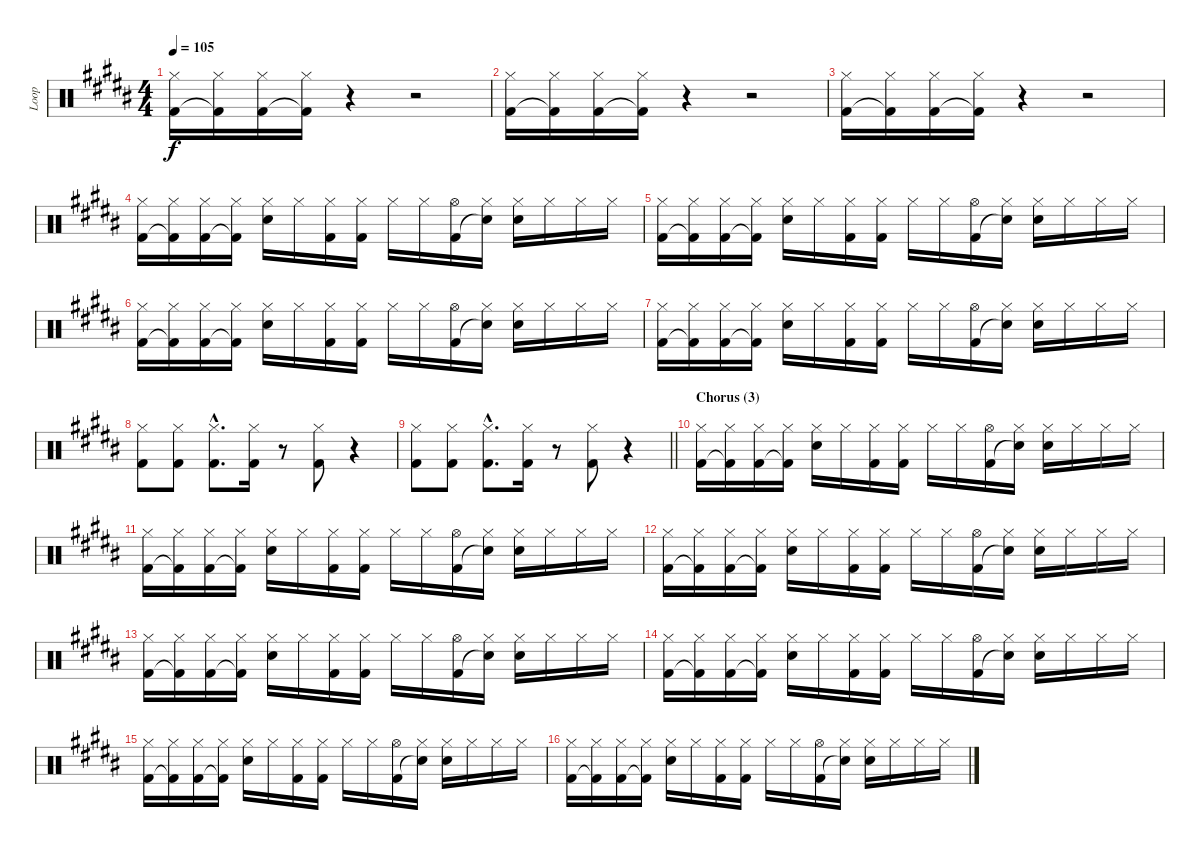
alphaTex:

\track ("Loop" "Loop") {instrument percussion}
\staff {score}
\articulation defaults
\ts (4 4)
\tempo 105
\clef neutral
\ks g#minor
("Hi-Hat (closed)" "Kick (hit) 2").16{dy f} ("Hi-Hat (closed)" "Kick (hit) 2"{t}).16 ("Hi-Hat (closed)" "Kick (hit) 2").16 ("Hi-Hat (closed)" "Kick (hit) 2"{t}).16 r.4 r.2 |
("Hi-Hat (closed)" "Kick (hit) 2").16 ("Hi-Hat (closed)" "Kick (hit) 2"{t}).16 ("Hi-Hat (closed)" "Kick (hit) 2").16 ("Hi-Hat (closed)" "Kick (hit) 2"{t}).16 r.4 r.2 |
("Hi-Hat (closed)" "Kick (hit) 2").16 ("Hi-Hat (closed)" "Kick (hit) 2"{t}).16 ("Hi-Hat (closed)" "Kick (hit) 2").16 ("Hi-Hat (closed)" "Kick (hit) 2"{t}).16 r.4 r.2 |
("Hi-Hat (closed)" "Kick (hit) 2").16 ("Hi-Hat (closed)" "Kick (hit) 2"{t}).16 ("Hi-Hat (closed)" "Kick (hit) 2").16 ("Hi-Hat (closed)" "Kick (hit) 2"{t}).16 ("Hi-Hat (closed)" "Electric Snare (hit)").16 "Hi-Hat (closed)".16 ("Hi-Hat (closed)" "Kick (hit) 2").16 ("Hi-Hat (closed)" "Kick (hit) 2").16 "Hi-Hat (closed)".16 "Hi-Hat (closed)".16 ("Hi-Hat (open)" "Kick (hit) 2").16 ("Hi-Hat (closed)" "Snare (hit)"{t}).16 ("Hi-Hat (closed)" "Electric Snare (hit)").16 "Hi-Hat (closed)".16 "Hi-Hat (closed)".16 "Hi-Hat (closed)".16 |
("Hi-Hat (closed)" "Kick (hit) 2").16 ("Hi-Hat (closed)" "Kick (hit) 2"{t}).16 ("Hi-Hat (closed)" "Kick (hit) 2").16 ("Hi-Hat (closed)" "Kick (hit) 2"{t}).16 ("Hi-Hat (closed)" "Electric Snare (hit)").16 "Hi-Hat (closed)".16 ("Hi-Hat (closed)" "Kick (hit) 2").16 ("Hi-Hat (closed)" "Kick (hit) 2").16 "Hi-Hat (closed)".16 "Hi-Hat (closed)".16 ("Hi-Hat (open)" "Kick (hit) 2").16 ("Hi-Hat (closed)" "Snare (hit)"{t}).16 ("Hi-Hat (closed)" "Electric Snare (hit)").16 "Hi-Hat (closed)".16 "Hi-Hat (closed)".16 "Hi-Hat (closed)".16 |
("Hi-Hat (closed)" "Kick (hit) 2").16 ("Hi-Hat (closed)" "Kick (hit) 2"{t}).16 ("Hi-Hat (closed)" "Kick (hit) 2").16 ("Hi-Hat (closed)" "Kick (hit) 2"{t}).16 ("Hi-Hat (closed)" "Electric Snare (hit)").16 "Hi-Hat (closed)".16 ("Hi-Hat (closed)" "Kick (hit) 2").16 ("Hi-Hat (closed)" "Kick (hit) 2").16 "Hi-Hat (closed)".16 "Hi-Hat (closed)".16 ("Hi-Hat (open)" "Kick (hit) 2").16 ("Hi-Hat (closed)" "Snare (hit)"{t}).16 ("Hi-Hat (closed)" "Electric Snare (hit)").16 "Hi-Hat (closed)".16 "Hi-Hat (closed)".16 "Hi-Hat (closed)".16 |
("Hi-Hat (closed)" "Kick (hit) 2").16 ("Hi-Hat (closed)" "Kick (hit) 2"{t}).16 ("Hi-Hat (closed)" "Kick (hit) 2").16 ("Hi-Hat (closed)" "Kick (hit) 2"{t}).16 ("Hi-Hat (closed)" "Electric Snare (hit)").16 "Hi-Hat (closed)".16 ("Hi-Hat (closed)" "Kick (hit) 2").16 ("Hi-Hat (closed)" "Kick (hit) 2").16 "Hi-Hat (closed)".16 "Hi-Hat (closed)".16 ("Hi-Hat (open)" "Kick (hit) 2").16 ("Hi-Hat (closed)" "Snare (hit)"{t}).16 ("Hi-Hat (closed)" "Electric Snare (hit)").16 "Hi-Hat (closed)".16 "Hi-Hat (closed)".16 "Hi-Hat (closed)".16 |
("Hi-Hat (closed)" "Kick (hit) 2").8 ("Hi-Hat (closed)" "Kick (hit) 2").8 ("Hi-Hat (closed)"{hac} "Kick (hit) 2"{hac}).8{d} ("Hi-Hat (closed)" "Kick (hit) 2").16 r.8 ("Hi-Hat (closed)" "Kick (hit) 2").8 r.4 |
\barLineRight lightlight
("Hi-Hat (closed)" "Kick (hit) 2").8 ("Hi-Hat (closed)" "Kick (hit) 2").8 ("Hi-Hat (closed)"{hac} "Kick (hit) 2"{hac}).8{d} ("Hi-Hat (closed)" "Kick (hit) 2").16 r.8 ("Hi-Hat (closed)" "Kick (hit) 2").8 r.4 |
\section ("" "Chorus (3)")
("Hi-Hat (closed)" "Kick (hit) 2").16 ("Hi-Hat (closed)" "Kick (hit) 2"{t}).16 ("Hi-Hat (closed)" "Kick (hit) 2").16 ("Hi-Hat (closed)" "Kick (hit) 2"{t}).16 ("Hi-Hat (closed)" "Electric Snare (hit)").16 "Hi-Hat (closed)".16 ("Hi-Hat (closed)" "Kick (hit) 2").16 ("Hi-Hat (closed)" "Kick (hit) 2").16 "Hi-Hat (closed)".16 "Hi-Hat (closed)".16 ("Hi-Hat (open)" "Kick (hit) 2").16 ("Hi-Hat (closed)" "Snare (hit)"{t}).16 ("Hi-Hat (closed)" "Electric Snare (hit)").16 "Hi-Hat (closed)".16 "Hi-Hat (closed)".16 "Hi-Hat (closed)".16 |
("Hi-Hat (closed)" "Kick (hit) 2").16 ("Hi-Hat (closed)" "Kick (hit) 2"{t}).16 ("Hi-Hat (closed)" "Kick (hit) 2").16 ("Hi-Hat (closed)" "Kick (hit) 2"{t}).16 ("Hi-Hat (closed)" "Electric Snare (hit)").16 "Hi-Hat (closed)".16 ("Hi-Hat (closed)" "Kick (hit) 2").16 ("Hi-Hat (closed)" "Kick (hit) 2").16 "Hi-Hat (closed)".16 "Hi-Hat (closed)".16 ("Hi-Hat (open)" "Kick (hit) 2").16 ("Hi-Hat (closed)" "Snare (hit)"{t}).16 ("Hi-Hat (closed)" "Electric Snare (hit)").16 "Hi-Hat (closed)".16 "Hi-Hat (closed)".16 "Hi-Hat (closed)".16 |
("Hi-Hat (closed)" "Kick (hit) 2").16 ("Hi-Hat (closed)" "Kick (hit) 2"{t}).16 ("Hi-Hat (closed)" "Kick (hit) 2").16 ("Hi-Hat (closed)" "Kick (hit) 2"{t}).16 ("Hi-Hat (closed)" "Electric Snare (hit)").16 "Hi-Hat (closed)".16 ("Hi-Hat (closed)" "Kick (hit) 2").16 ("Hi-Hat (closed)" "Kick (hit) 2").16 "Hi-Hat (closed)".16 "Hi-Hat (closed)".16 ("Hi-Hat (open)" "Kick (hit) 2").16 ("Hi-Hat (closed)" "Snare (hit)"{t}).16 ("Hi-Hat (closed)" "Electric Snare (hit)").16 "Hi-Hat (closed)".16 "Hi-Hat (closed)".16 "Hi-Hat (closed)".16 |
("Hi-Hat (closed)" "Kick (hit) 2").16 ("Hi-Hat (closed)" "Kick (hit) 2"{t}).16 ("Hi-Hat (closed)" "Kick (hit) 2").16 ("Hi-Hat (closed)" "Kick (hit) 2"{t}).16 ("Hi-Hat (closed)" "Electric Snare (hit)").16 "Hi-Hat (closed)".16 ("Hi-Hat (closed)" "Kick (hit) 2").16 ("Hi-Hat (closed)" "Kick (hit) 2").16 "Hi-Hat (closed)".16 "Hi-Hat (closed)".16 ("Hi-Hat (open)" "Kick (hit) 2").16 ("Hi-Hat (closed)" "Snare (hit)"{t}).16 ("Hi-Hat (closed)" "Electric Snare (hit)").16 "Hi-Hat (closed)".16 "Hi-Hat (closed)".16 "Hi-Hat (closed)".16 |
("Hi-Hat (closed)" "Kick (hit) 2").16 ("Hi-Hat (closed)" "Kick (hit) 2"{t}).16 ("Hi-Hat (closed)" "Kick (hit) 2").16 ("Hi-Hat (closed)" "Kick (hit) 2"{t}).16 ("Hi-Hat (closed)" "Electric Snare (hit)").16 "Hi-Hat (closed)".16 ("Hi-Hat (closed)" "Kick (hit) 2").16 ("Hi-Hat (closed)" "Kick (hit) 2").16 "Hi-Hat (closed)".16 "Hi-Hat (closed)".16 ("Hi-Hat (open)" "Kick (hit) 2").16 ("Hi-Hat (closed)" "Snare (hit)"{t}).16 ("Hi-Hat (closed)" "Electric Snare (hit)").16 "Hi-Hat (closed)".16 "Hi-Hat (closed)".16 "Hi-Hat (closed)".16 |
("Hi-Hat (closed)" "Kick (hit) 2").16 ("Hi-Hat (closed)" "Kick (hit) 2"{t}).16 ("Hi-Hat (closed)" "Kick (hit) 2").16 ("Hi-Hat (closed)" "Kick (hit) 2"{t}).16 ("Hi-Hat (closed)" "Electric Snare (hit)").16 "Hi-Hat (closed)".16 ("Hi-Hat (closed)" "Kick (hit) 2").16 ("Hi-Hat (closed)" "Kick (hit) 2").16 "Hi-Hat (closed)".16 "Hi-Hat (closed)".16 ("Hi-Hat (open)" "Kick (hit) 2").16 ("Hi-Hat (closed)" "Snare (hit)"{t}).16 ("Hi-Hat (closed)" "Electric Snare (hit)").16 "Hi-Hat (closed)".16 "Hi-Hat (closed)".16 "Hi-Hat (closed)".16 |
("Hi-Hat (closed)" "Kick (hit) 2").16 ("Hi-Hat (closed)" "Kick (hit) 2"{t}).16 ("Hi-Hat (closed)" "Kick (hit) 2").16 ("Hi-Hat (closed)" "Kick (hit) 2"{t}).16 ("Hi-Hat (closed)" "Electric Snare (hit)").16 "Hi-Hat (closed)".16 ("Hi-Hat (closed)" "Kick (hit) 2").16 ("Hi-Hat (closed)" "Kick (hit) 2").16 "Hi-Hat (closed)".16 "Hi-Hat (closed)".16 ("Hi-Hat (open)" "Kick (hit) 2").16 ("Hi-Hat (closed)" "Snare (hit)"{t}).16 ("Hi-Hat (closed)" "Electric Snare (hit)").16 "Hi-Hat (closed)".16 "Hi-Hat (closed)".16 "Hi-Hat (closed)".16
